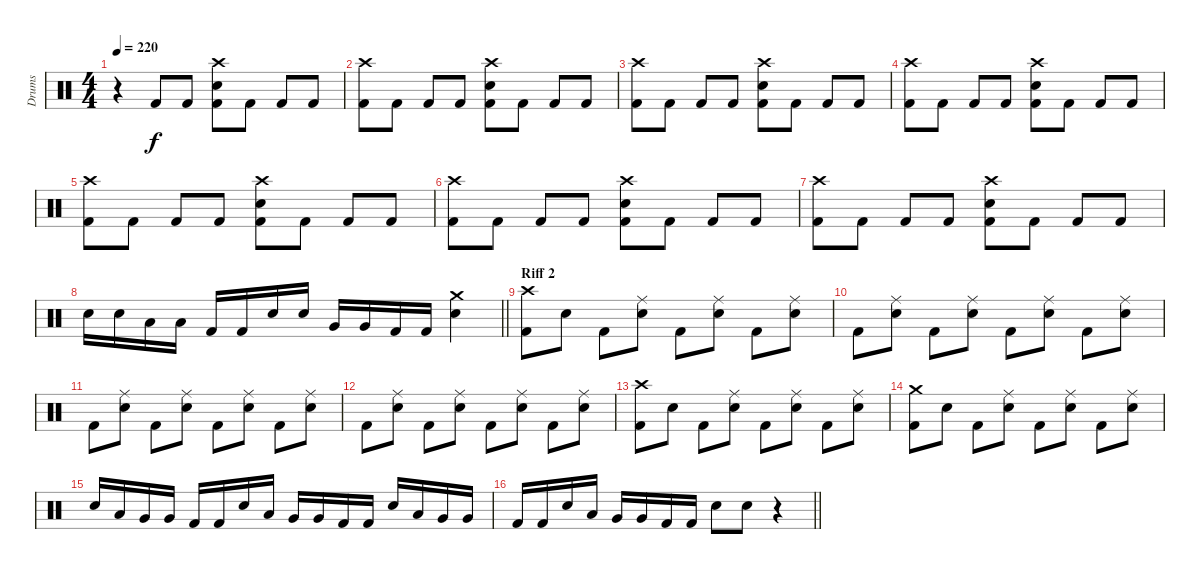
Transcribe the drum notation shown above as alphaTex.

\track ("Drums" "Drums") {instrument percussion}
\staff {score}
\articulation defaults
\ts (4 4)
\tempo 220
\clef neutral
\ks c
r.4{dy f} "Kick (hit) 2".8 "Kick (hit) 2".8 ("Kick (hit) 2" "Electric Snare (hit)" "Crash high (hit)").8 "Kick (hit) 2".8 "Kick (hit) 2".8 "Kick (hit) 2".8 |
("Kick (hit) 2" "Crash high (hit)").8 "Kick (hit) 2".8 "Kick (hit) 2".8 "Kick (hit) 2".8 ("Kick (hit) 2" "Electric Snare (hit)" "Crash high (hit)").8 "Kick (hit) 2".8 "Kick (hit) 2".8 "Kick (hit) 2".8 |
("Kick (hit) 2" "Crash high (hit)").8 "Kick (hit) 2".8 "Kick (hit) 2".8 "Kick (hit) 2".8 ("Kick (hit) 2" "Electric Snare (hit)" "Crash high (hit)").8 "Kick (hit) 2".8 "Kick (hit) 2".8 "Kick (hit) 2".8 |
("Kick (hit) 2" "Crash high (hit)").8 "Kick (hit) 2".8 "Kick (hit) 2".8 "Kick (hit) 2".8 ("Kick (hit) 2" "Electric Snare (hit)" "Crash high (hit)").8 "Kick (hit) 2".8 "Kick (hit) 2".8 "Kick (hit) 2".8 |
("Kick (hit) 2" "Crash high (hit)").8 "Kick (hit) 2".8 "Kick (hit) 2".8 "Kick (hit) 2".8 ("Kick (hit) 2" "Electric Snare (hit)" "Crash high (hit)").8 "Kick (hit) 2".8 "Kick (hit) 2".8 "Kick (hit) 2".8 |
("Kick (hit) 2" "Crash high (hit)").8 "Kick (hit) 2".8 "Kick (hit) 2".8 "Kick (hit) 2".8 ("Kick (hit) 2" "Electric Snare (hit)" "Crash high (hit)").8 "Kick (hit) 2".8 "Kick (hit) 2".8 "Kick (hit) 2".8 |
("Kick (hit) 2" "Crash high (hit)").8 "Kick (hit) 2".8 "Kick (hit) 2".8 "Kick (hit) 2".8 ("Kick (hit) 2" "Electric Snare (hit)" "Crash high (hit)").8 "Kick (hit) 2".8 "Kick (hit) 2".8 "Kick (hit) 2".8 |
\barLineRight lightlight "Electric Snare (hit)".16 "Electric Snare (hit)".16 "Low Tom (hit)".16 "Low Tom (hit)".16 "Kick (hit) 2".16 "Kick (hit) 2".16 "Electric Snare (hit)".16 "Electric Snare (hit)".16 "Very Low Tom (hit)".16 "Very Low Tom (hit)".16 "Kick (hit) 2".16 "Kick (hit) 2".16
("Electric Snare (hit)" "Crash medium (hit)").4 |
\section ("" "Riff 2")
("Kick (hit) 2" "Crash high (hit)").8 "Electric Snare (hit)".8 "Kick (hit) 2".8 ("Electric Snare (hit)" "Ride (middle)").8 "Kick (hit) 2".8 ("Electric Snare (hit)" "Ride (middle)").8 "Kick (hit) 2".8 ("Electric Snare (hit)" "Ride (middle)").8 |
"Kick (hit) 2".8 ("Electric Snare (hit)" "Ride (middle)").8 "Kick (hit) 2".8 ("Electric Snare (hit)" "Ride (middle)").8 "Kick (hit) 2".8 ("Electric Snare (hit)" "Ride (middle)").8 "Kick (hit) 2".8 ("Electric Snare (hit)" "Ride (middle)").8 |
"Kick (hit) 2".8 ("Electric Snare (hit)" "Ride (middle)").8 "Kick (hit) 2".8 ("Electric Snare (hit)" "Ride (middle)").8 "Kick (hit) 2".8 ("Electric Snare (hit)" "Ride (middle)").8 "Kick (hit) 2".8 ("Electric Snare (hit)" "Ride (middle)").8 |
"Kick (hit) 2".8 ("Electric Snare (hit)" "Ride (middle)").8 "Kick (hit) 2".8 ("Electric Snare (hit)" "Ride (middle)").8 "Kick (hit) 2".8 ("Electric Snare (hit)" "Ride (middle)").8 "Kick (hit) 2".8 ("Electric Snare (hit)" "Ride (middle)").8 |
("Kick (hit) 2" "Crash high (hit)").8 "Electric Snare (hit)".8 "Kick (hit) 2".8 ("Electric Snare (hit)" "Ride (middle)").8 "Kick (hit) 2".8 ("Electric Snare (hit)" "Ride (middle)").8 "Kick (hit) 2".8 ("Electric Snare (hit)" "Ride (middle)").8 |
("Kick (hit) 2" "Crash medium (hit)").8 "Electric Snare (hit)".8 "Kick (hit) 2".8 ("Electric Snare (hit)" "Ride (middle)").8 "Kick (hit) 2".8 ("Electric Snare (hit)" "Ride (middle)").8 "Kick (hit) 2".8 ("Electric Snare (hit)" "Ride (middle)").8 |
"Electric Snare (hit)".16 "Low Tom (hit)".16 "Very Low Tom (hit)".16 "Very Low Tom (hit)".16 "Kick (hit) 2".16 "Kick (hit) 2".16 "Electric Snare (hit)".16 "Low Tom (hit)".16 "Very Low Tom (hit)".16 "Very Low Tom (hit)".16 "Kick (hit) 2".16 "Kick (hit) 2".16 "Electric Snare (hit)".16 "Low Tom (hit)".16 "Very Low Tom (hit)".16 "Very Low Tom (hit)".16 |
\barLineRight lightlight "Kick (hit) 2".16 "Kick (hit) 2".16 "Electric Snare (hit)".16 "Low Tom (hit)".16 "Very Low Tom (hit)".16 "Very Low Tom (hit)".16 "Kick (hit) 2".16 "Kick (hit) 2".16 "Electric Snare (hit)".8 "Electric Snare (hit)".8
r.4
